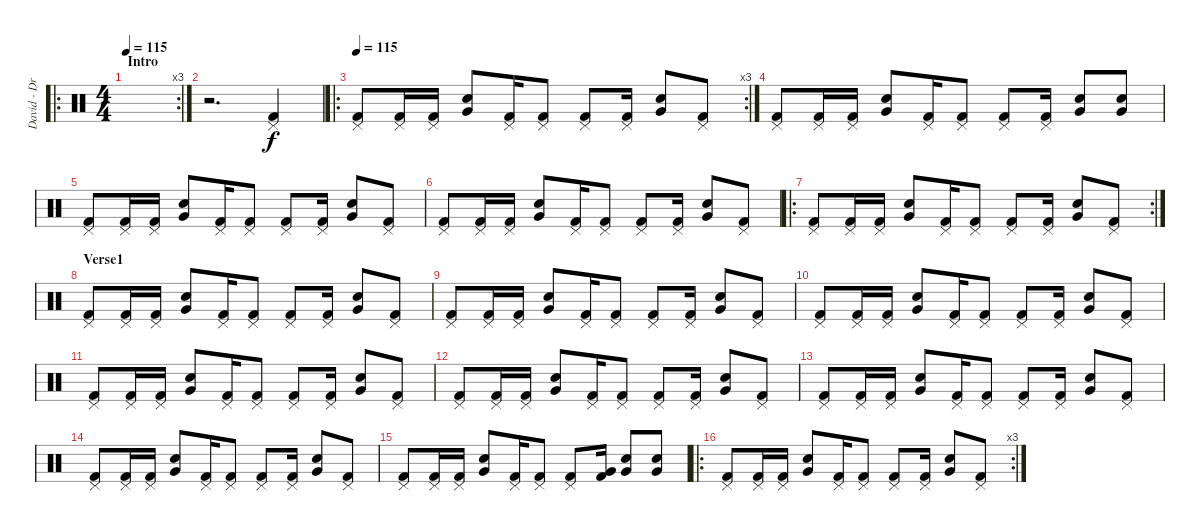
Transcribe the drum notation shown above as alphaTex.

\track ("David - Drums" "David - Dr") {instrument percussion}
\staff {score}
\articulation defaults
\ro
\rc 3
\ts (4 4)
\section ("" "Intro")
\tempo 115
\clef neutral
\ks c
|
r.2{d} ("Kick (hit) 2" "Pedal Hi-Hat (hit)").4 |
\ro
\rc 3
\tempo 115
("Kick (hit) 2" "Pedal Hi-Hat (hit)").8 ("Kick (hit) 2" "Pedal Hi-Hat (hit)").16 ("Kick (hit) 2" "Pedal Hi-Hat (hit)").16 ("Snare (hit) 2" "Very Low Tom (hit)").8 ("Kick (hit) 2" "Pedal Hi-Hat (hit)").16 ("Kick (hit) 2" "Pedal Hi-Hat (hit)").8 ("Kick (hit) 2" "Pedal Hi-Hat (hit)").8 ("Kick (hit) 2" "Pedal Hi-Hat (hit)").16 ("Snare (hit) 2" "Very Low Tom (hit)").8 ("Kick (hit) 2" "Pedal Hi-Hat (hit)").8 |
("Kick (hit) 2" "Pedal Hi-Hat (hit)").8 ("Kick (hit) 2" "Pedal Hi-Hat (hit)").16 ("Kick (hit) 2" "Pedal Hi-Hat (hit)").16 ("Snare (hit) 2" "Very Low Tom (hit)").8 ("Kick (hit) 2" "Pedal Hi-Hat (hit)").16 ("Kick (hit) 2" "Pedal Hi-Hat (hit)").8 ("Kick (hit) 2" "Pedal Hi-Hat (hit)").8 ("Kick (hit) 2" "Pedal Hi-Hat (hit)").16 ("Snare (hit) 2" "Very Low Tom (hit)").8 ("Snare (hit) 2" "Very Low Tom (hit)").8 |
("Kick (hit) 2" "Pedal Hi-Hat (hit)").8 ("Kick (hit) 2" "Pedal Hi-Hat (hit)").16 ("Kick (hit) 2" "Pedal Hi-Hat (hit)").16 ("Snare (hit) 2" "Very Low Tom (hit)").8 ("Kick (hit) 2" "Pedal Hi-Hat (hit)").16 ("Kick (hit) 2" "Pedal Hi-Hat (hit)").8 ("Kick (hit) 2" "Pedal Hi-Hat (hit)").8 ("Kick (hit) 2" "Pedal Hi-Hat (hit)").16 ("Snare (hit) 2" "Very Low Tom (hit)").8 ("Kick (hit) 2" "Pedal Hi-Hat (hit)").8 |
("Kick (hit) 2" "Pedal Hi-Hat (hit)").8 ("Kick (hit) 2" "Pedal Hi-Hat (hit)").16 ("Kick (hit) 2" "Pedal Hi-Hat (hit)").16 ("Snare (hit) 2" "Very Low Tom (hit)").8 ("Kick (hit) 2" "Pedal Hi-Hat (hit)").16 ("Kick (hit) 2" "Pedal Hi-Hat (hit)").8 ("Kick (hit) 2" "Pedal Hi-Hat (hit)").8 ("Kick (hit) 2" "Pedal Hi-Hat (hit)").16 ("Snare (hit) 2" "Very Low Tom (hit)").8 ("Kick (hit) 2" "Pedal Hi-Hat (hit)").8 |
\ro
\rc 2
("Kick (hit) 2" "Pedal Hi-Hat (hit)").8 ("Kick (hit) 2" "Pedal Hi-Hat (hit)").16 ("Kick (hit) 2" "Pedal Hi-Hat (hit)").16 ("Snare (hit) 2" "Very Low Tom (hit)").8 ("Kick (hit) 2" "Pedal Hi-Hat (hit)").16 ("Kick (hit) 2" "Pedal Hi-Hat (hit)").8 ("Kick (hit) 2" "Pedal Hi-Hat (hit)").8 ("Kick (hit) 2" "Pedal Hi-Hat (hit)").16 ("Snare (hit) 2" "Very Low Tom (hit)").8 ("Kick (hit) 2" "Pedal Hi-Hat (hit)").8 |
\section ("" "Verse1")
("Kick (hit) 2" "Pedal Hi-Hat (hit)").8 ("Kick (hit) 2" "Pedal Hi-Hat (hit)").16 ("Kick (hit) 2" "Pedal Hi-Hat (hit)").16 ("Snare (hit) 2" "Very Low Tom (hit)").8 ("Kick (hit) 2" "Pedal Hi-Hat (hit)").16 ("Kick (hit) 2" "Pedal Hi-Hat (hit)").8 ("Kick (hit) 2" "Pedal Hi-Hat (hit)").8 ("Kick (hit) 2" "Pedal Hi-Hat (hit)").16 ("Snare (hit) 2" "Very Low Tom (hit)").8 ("Kick (hit) 2" "Pedal Hi-Hat (hit)").8 |
("Kick (hit) 2" "Pedal Hi-Hat (hit)").8 ("Kick (hit) 2" "Pedal Hi-Hat (hit)").16 ("Kick (hit) 2" "Pedal Hi-Hat (hit)").16 ("Snare (hit) 2" "Very Low Tom (hit)").8 ("Kick (hit) 2" "Pedal Hi-Hat (hit)").16 ("Kick (hit) 2" "Pedal Hi-Hat (hit)").8 ("Kick (hit) 2" "Pedal Hi-Hat (hit)").8 ("Kick (hit) 2" "Pedal Hi-Hat (hit)").16 ("Snare (hit) 2" "Very Low Tom (hit)").8 ("Kick (hit) 2" "Pedal Hi-Hat (hit)").8 |
("Kick (hit) 2" "Pedal Hi-Hat (hit)").8 ("Kick (hit) 2" "Pedal Hi-Hat (hit)").16 ("Kick (hit) 2" "Pedal Hi-Hat (hit)").16 ("Snare (hit) 2" "Very Low Tom (hit)").8 ("Kick (hit) 2" "Pedal Hi-Hat (hit)").16 ("Kick (hit) 2" "Pedal Hi-Hat (hit)").8 ("Kick (hit) 2" "Pedal Hi-Hat (hit)").8 ("Kick (hit) 2" "Pedal Hi-Hat (hit)").16 ("Snare (hit) 2" "Very Low Tom (hit)").8 ("Kick (hit) 2" "Pedal Hi-Hat (hit)").8 |
("Kick (hit) 2" "Pedal Hi-Hat (hit)").8 ("Kick (hit) 2" "Pedal Hi-Hat (hit)").16 ("Kick (hit) 2" "Pedal Hi-Hat (hit)").16 ("Snare (hit) 2" "Very Low Tom (hit)").8 ("Kick (hit) 2" "Pedal Hi-Hat (hit)").16 ("Kick (hit) 2" "Pedal Hi-Hat (hit)").8 ("Kick (hit) 2" "Pedal Hi-Hat (hit)").8 ("Kick (hit) 2" "Pedal Hi-Hat (hit)").16 ("Snare (hit) 2" "Very Low Tom (hit)").8 ("Kick (hit) 2" "Pedal Hi-Hat (hit)").8 |
("Kick (hit) 2" "Pedal Hi-Hat (hit)").8 ("Kick (hit) 2" "Pedal Hi-Hat (hit)").16 ("Kick (hit) 2" "Pedal Hi-Hat (hit)").16 ("Snare (hit) 2" "Very Low Tom (hit)").8 ("Kick (hit) 2" "Pedal Hi-Hat (hit)").16 ("Kick (hit) 2" "Pedal Hi-Hat (hit)").8 ("Kick (hit) 2" "Pedal Hi-Hat (hit)").8 ("Kick (hit) 2" "Pedal Hi-Hat (hit)").16 ("Snare (hit) 2" "Very Low Tom (hit)").8 ("Kick (hit) 2" "Pedal Hi-Hat (hit)").8 |
("Kick (hit) 2" "Pedal Hi-Hat (hit)").8 ("Kick (hit) 2" "Pedal Hi-Hat (hit)").16 ("Kick (hit) 2" "Pedal Hi-Hat (hit)").16 ("Snare (hit) 2" "Very Low Tom (hit)").8 ("Kick (hit) 2" "Pedal Hi-Hat (hit)").16 ("Kick (hit) 2" "Pedal Hi-Hat (hit)").8 ("Kick (hit) 2" "Pedal Hi-Hat (hit)").8 ("Kick (hit) 2" "Pedal Hi-Hat (hit)").16 ("Snare (hit) 2" "Very Low Tom (hit)").8 ("Kick (hit) 2" "Pedal Hi-Hat (hit)").8 |
("Kick (hit) 2" "Pedal Hi-Hat (hit)").8 ("Kick (hit) 2" "Pedal Hi-Hat (hit)").16 ("Kick (hit) 2" "Pedal Hi-Hat (hit)").16 ("Snare (hit) 2" "Very Low Tom (hit)").8 ("Kick (hit) 2" "Pedal Hi-Hat (hit)").16 ("Kick (hit) 2" "Pedal Hi-Hat (hit)").8 ("Kick (hit) 2" "Pedal Hi-Hat (hit)").8 ("Kick (hit) 2" "Pedal Hi-Hat (hit)").16 ("Snare (hit) 2" "Very Low Tom (hit)").8 ("Kick (hit) 2" "Pedal Hi-Hat (hit)").8 |
("Kick (hit) 2" "Pedal Hi-Hat (hit)").8 ("Kick (hit) 2" "Pedal Hi-Hat (hit)").16 ("Kick (hit) 2" "Pedal Hi-Hat (hit)").16 ("Snare (hit) 2" "Very Low Tom (hit)").8 ("Kick (hit) 2" "Pedal Hi-Hat (hit)").16 ("Kick (hit) 2" "Pedal Hi-Hat (hit)").8 ("Kick (hit) 2" "Pedal Hi-Hat (hit)").8 ("Kick (hit) 2" "Very Low Tom (hit)").16 ("Snare (hit) 2" "Very Low Tom (hit)").8 ("Snare (hit) 2" "Very Low Tom (hit)").8 |
\ro
\rc 3
("Kick (hit) 2" "Pedal Hi-Hat (hit)").8 ("Kick (hit) 2" "Pedal Hi-Hat (hit)").16 ("Kick (hit) 2" "Pedal Hi-Hat (hit)").16 ("Snare (hit) 2" "Very Low Tom (hit)").8 ("Kick (hit) 2" "Pedal Hi-Hat (hit)").16 ("Kick (hit) 2" "Pedal Hi-Hat (hit)").8 ("Kick (hit) 2" "Pedal Hi-Hat (hit)").8 ("Kick (hit) 2" "Pedal Hi-Hat (hit)").16 ("Snare (hit) 2" "Very Low Tom (hit)").8 ("Kick (hit) 2" "Pedal Hi-Hat (hit)").8
